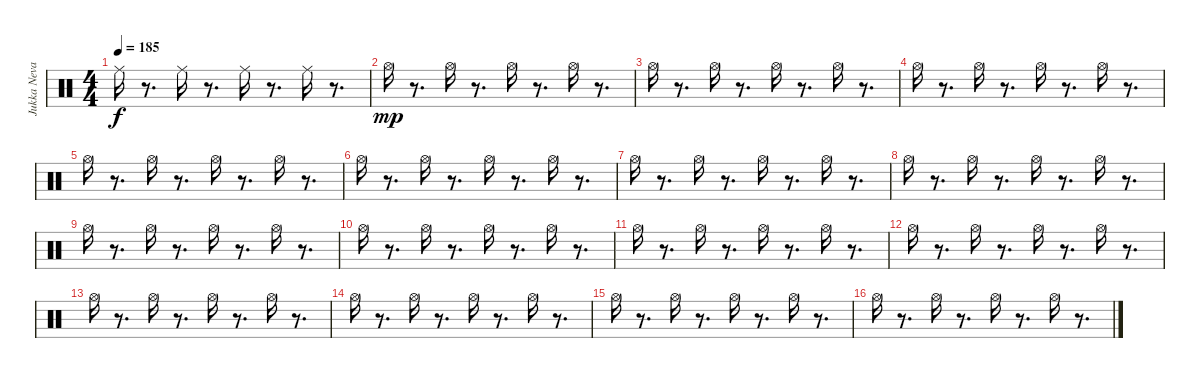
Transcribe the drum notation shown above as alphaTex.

\track ("Jukka Nevalinen" "Jukka Neva") {instrument percussion}
\staff {score}
\articulation defaults
\ts (4 4)
\tempo 185
\clef neutral
\ks c "Ride (middle)".16{dy f}
r.8{d} "Ride (middle)".16 r.8{d} "Ride (middle)".16 r.8{d} "Ride (middle)".16 r.8{d} |
"Hi-Hat (open)".16{dy mp} r.8{d} "Hi-Hat (open)".16 r.8{d} "Hi-Hat (open)".16 r.8{d} "Hi-Hat (open)".16 r.8{d} |
"Hi-Hat (open)".16 r.8{d} "Hi-Hat (open)".16 r.8{d} "Hi-Hat (open)".16 r.8{d} "Hi-Hat (open)".16 r.8{d} |
"Hi-Hat (open)".16 r.8{d} "Hi-Hat (open)".16 r.8{d} "Hi-Hat (open)".16 r.8{d} "Hi-Hat (open)".16 r.8{d} |
"Hi-Hat (open)".16 r.8{d} "Hi-Hat (open)".16 r.8{d} "Hi-Hat (open)".16 r.8{d} "Hi-Hat (open)".16 r.8{d} |
"Hi-Hat (open)".16 r.8{d} "Hi-Hat (open)".16 r.8{d} "Hi-Hat (open)".16 r.8{d} "Hi-Hat (open)".16 r.8{d} |
"Hi-Hat (open)".16 r.8{d} "Hi-Hat (open)".16 r.8{d} "Hi-Hat (open)".16 r.8{d} "Hi-Hat (open)".16 r.8{d} |
"Hi-Hat (open)".16 r.8{d} "Hi-Hat (open)".16 r.8{d} "Hi-Hat (open)".16 r.8{d} "Hi-Hat (open)".16 r.8{d} |
"Hi-Hat (open)".16 r.8{d} "Hi-Hat (open)".16 r.8{d} "Hi-Hat (open)".16 r.8{d} "Hi-Hat (open)".16 r.8{d} |
"Hi-Hat (open)".16 r.8{d} "Hi-Hat (open)".16 r.8{d} "Hi-Hat (open)".16 r.8{d} "Hi-Hat (open)".16 r.8{d} |
"Hi-Hat (open)".16 r.8{d} "Hi-Hat (open)".16 r.8{d} "Hi-Hat (open)".16 r.8{d} "Hi-Hat (open)".16 r.8{d} |
"Hi-Hat (open)".16 r.8{d} "Hi-Hat (open)".16 r.8{d} "Hi-Hat (open)".16 r.8{d} "Hi-Hat (open)".16 r.8{d} |
"Hi-Hat (open)".16 r.8{d} "Hi-Hat (open)".16 r.8{d} "Hi-Hat (open)".16 r.8{d} "Hi-Hat (open)".16 r.8{d} |
"Hi-Hat (open)".16 r.8{d} "Hi-Hat (open)".16 r.8{d} "Hi-Hat (open)".16 r.8{d} "Hi-Hat (open)".16 r.8{d} |
"Hi-Hat (open)".16 r.8{d} "Hi-Hat (open)".16 r.8{d} "Hi-Hat (open)".16 r.8{d} "Hi-Hat (open)".16 r.8{d} |
"Hi-Hat (open)".16 r.8{d} "Hi-Hat (open)".16 r.8{d} "Hi-Hat (open)".16 r.8{d} "Hi-Hat (open)".16 r.8{d}
